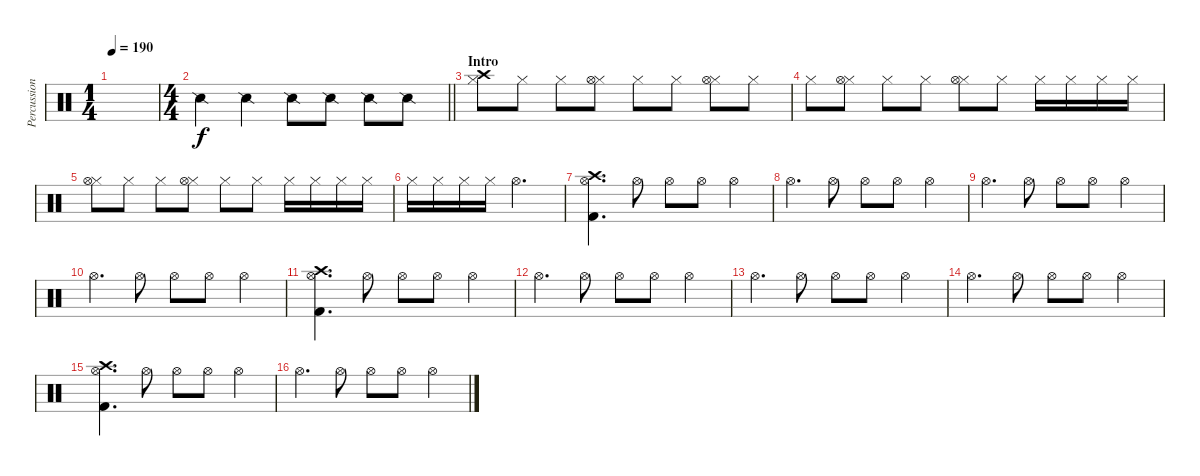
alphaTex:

\track ("Percussion" "Percussion") {instrument percussion}
\staff {score}
\articulation defaults
\ts (1 4)
\tempo 190
\clef neutral
\ks c
|
\ts (4 4)
\barLineRight lightlight "Snare (side stick) 2".4 "Snare (side stick) 2".4 "Snare (side stick) 2".8 "Snare (side stick) 2".8 "Snare (side stick) 2".8 "Snare (side stick) 2".8
|
\section ("" "Intro")
("Hi-Hat (closed)" "Crash high (hit)").8 "Hi-Hat (closed)".8 "Hi-Hat (closed)".8 ("Hi-Hat (closed)" "Hi-Hat (open)").8 "Hi-Hat (closed)".8 "Hi-Hat (closed)".8 ("Hi-Hat (closed)" "Hi-Hat (open)").8 "Hi-Hat (closed)".8 |
"Hi-Hat (closed)".8 ("Hi-Hat (closed)" "Hi-Hat (open)").8 "Hi-Hat (closed)".8 "Hi-Hat (closed)".8 ("Hi-Hat (closed)" "Hi-Hat (open)").8 "Hi-Hat (closed)".8 "Hi-Hat (closed)".16 "Hi-Hat (closed)".16 "Hi-Hat (closed)".16 "Hi-Hat (closed)".16 |
("Hi-Hat (closed)" "Hi-Hat (open)").8 "Hi-Hat (closed)".8 "Hi-Hat (closed)".8 ("Hi-Hat (closed)" "Hi-Hat (open)").8 "Hi-Hat (closed)".8 "Hi-Hat (closed)".8 "Hi-Hat (closed)".16 "Hi-Hat (closed)".16 "Hi-Hat (closed)".16 "Hi-Hat (closed)".16 |
"Hi-Hat (closed)".16 "Hi-Hat (closed)".16 "Hi-Hat (closed)".16 "Hi-Hat (closed)".16 "Hi-Hat (open)".2{d} |
("Hi-Hat (open)" "Crash high (hit)" "Kick (hit) 2").4{d} "Hi-Hat (open)".8 "Hi-Hat (open)".8 "Hi-Hat (open)".8 "Hi-Hat (open)".4 |
"Hi-Hat (open)".4{d} "Hi-Hat (open)".8 "Hi-Hat (open)".8 "Hi-Hat (open)".8 "Hi-Hat (open)".4 |
"Hi-Hat (open)".4{d} "Hi-Hat (open)".8 "Hi-Hat (open)".8 "Hi-Hat (open)".8 "Hi-Hat (open)".4 |
"Hi-Hat (open)".4{d} "Hi-Hat (open)".8 "Hi-Hat (open)".8 "Hi-Hat (open)".8 "Hi-Hat (open)".4 |
("Hi-Hat (open)" "Kick (hit) 2" "Crash high (hit)").4{d} "Hi-Hat (open)".8 "Hi-Hat (open)".8 "Hi-Hat (open)".8 "Hi-Hat (open)".4 |
"Hi-Hat (open)".4{d} "Hi-Hat (open)".8 "Hi-Hat (open)".8 "Hi-Hat (open)".8 "Hi-Hat (open)".4 |
"Hi-Hat (open)".4{d} "Hi-Hat (open)".8 "Hi-Hat (open)".8 "Hi-Hat (open)".8 "Hi-Hat (open)".4 |
"Hi-Hat (open)".4{d} "Hi-Hat (open)".8 "Hi-Hat (open)".8 "Hi-Hat (open)".8 "Hi-Hat (open)".4 |
("Hi-Hat (open)" "Kick (hit) 2" "Crash high (hit)").4{d} "Hi-Hat (open)".8 "Hi-Hat (open)".8 "Hi-Hat (open)".8 "Hi-Hat (open)".4 |
"Hi-Hat (open)".4{d} "Hi-Hat (open)".8 "Hi-Hat (open)".8 "Hi-Hat (open)".8 "Hi-Hat (open)".4
